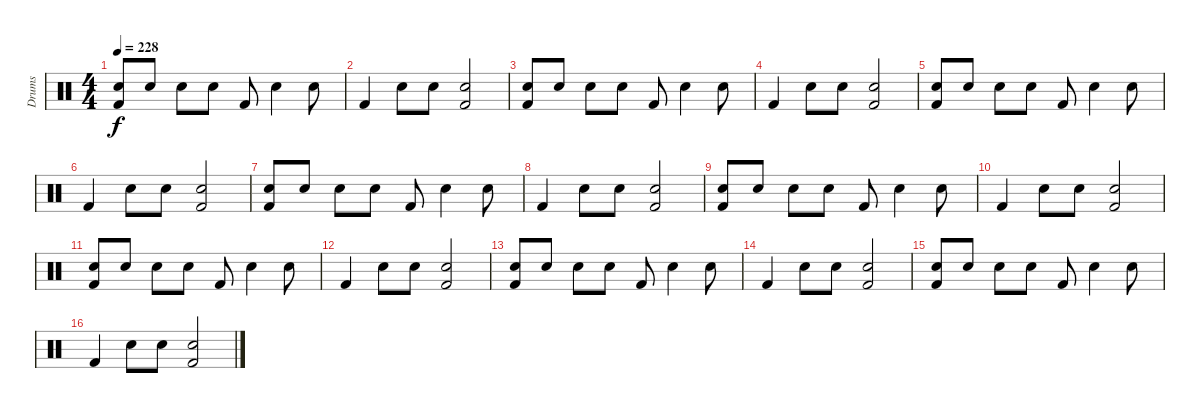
\track ("Drums" "Drums") {instrument percussion}
\staff {score}
\articulation defaults
\ts (4 4)
\tempo 228
\clef neutral
\ks c
("Snare (hit) 2" "Kick (hit) 2").8{dy f} "Snare (hit) 2".8 "Snare (hit) 2".8 "Snare (hit) 2".8 "Kick (hit) 2".8 "Snare (hit) 2".4 "Snare (hit) 2".8 |
"Kick (hit) 2".4 "Snare (hit) 2".8 "Snare (hit) 2".8 ("Snare (hit) 2" "Kick (hit) 2").2 |
("Snare (hit) 2" "Kick (hit) 2").8 "Snare (hit) 2".8 "Snare (hit) 2".8 "Snare (hit) 2".8 "Kick (hit) 2".8 "Snare (hit) 2".4 "Snare (hit) 2".8 |
"Kick (hit) 2".4 "Snare (hit) 2".8 "Snare (hit) 2".8 ("Snare (hit) 2" "Kick (hit) 2").2 |
("Snare (hit) 2" "Kick (hit) 2").8 "Snare (hit) 2".8 "Snare (hit) 2".8 "Snare (hit) 2".8 "Kick (hit) 2".8 "Snare (hit) 2".4 "Snare (hit) 2".8 |
"Kick (hit) 2".4 "Snare (hit) 2".8 "Snare (hit) 2".8 ("Snare (hit) 2" "Kick (hit) 2").2 |
("Snare (hit) 2" "Kick (hit) 2").8 "Snare (hit) 2".8 "Snare (hit) 2".8 "Snare (hit) 2".8 "Kick (hit) 2".8 "Snare (hit) 2".4 "Snare (hit) 2".8 |
"Kick (hit) 2".4 "Snare (hit) 2".8 "Snare (hit) 2".8 ("Snare (hit) 2" "Kick (hit) 2").2 |
("Snare (hit) 2" "Kick (hit) 2").8 "Snare (hit) 2".8 "Snare (hit) 2".8 "Snare (hit) 2".8 "Kick (hit) 2".8 "Snare (hit) 2".4 "Snare (hit) 2".8 |
"Kick (hit) 2".4 "Snare (hit) 2".8 "Snare (hit) 2".8 ("Snare (hit) 2" "Kick (hit) 2").2 |
("Snare (hit) 2" "Kick (hit) 2").8 "Snare (hit) 2".8 "Snare (hit) 2".8 "Snare (hit) 2".8 "Kick (hit) 2".8 "Snare (hit) 2".4 "Snare (hit) 2".8 |
"Kick (hit) 2".4 "Snare (hit) 2".8 "Snare (hit) 2".8 ("Snare (hit) 2" "Kick (hit) 2").2 |
("Snare (hit) 2" "Kick (hit) 2").8 "Snare (hit) 2".8 "Snare (hit) 2".8 "Snare (hit) 2".8 "Kick (hit) 2".8 "Snare (hit) 2".4 "Snare (hit) 2".8 |
"Kick (hit) 2".4 "Snare (hit) 2".8 "Snare (hit) 2".8 ("Snare (hit) 2" "Kick (hit) 2").2 |
("Snare (hit) 2" "Kick (hit) 2").8 "Snare (hit) 2".8 "Snare (hit) 2".8 "Snare (hit) 2".8 "Kick (hit) 2".8 "Snare (hit) 2".4 "Snare (hit) 2".8 |
"Kick (hit) 2".4 "Snare (hit) 2".8 "Snare (hit) 2".8 ("Snare (hit) 2" "Kick (hit) 2").2
